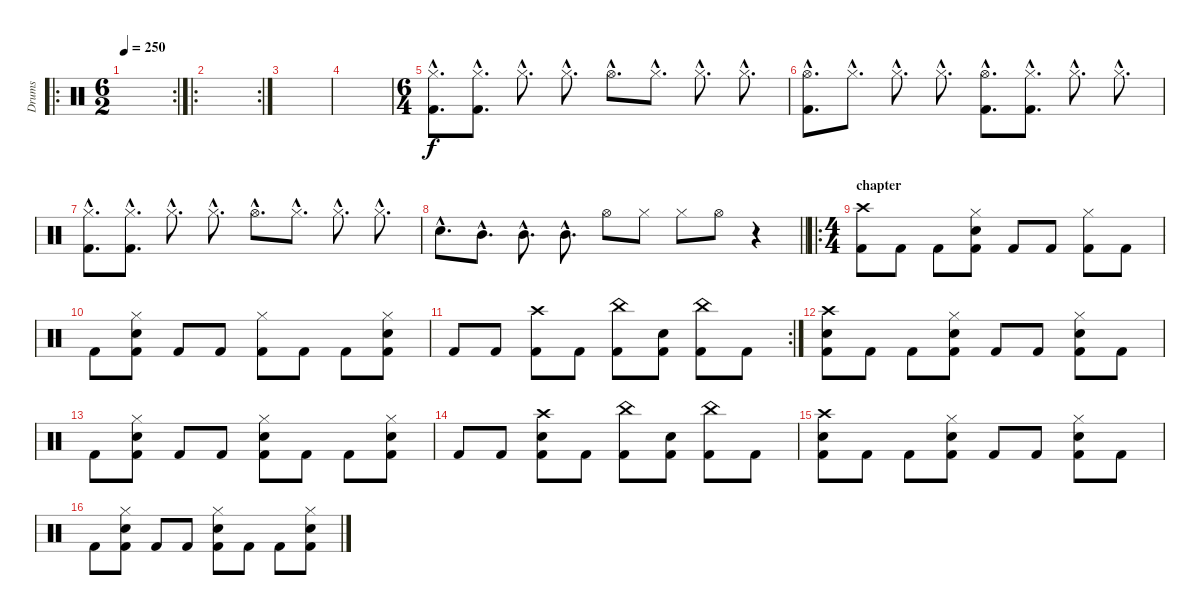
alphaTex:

\track ("Drums" "Drums") {instrument percussion}
\staff {score}
\articulation defaults
\ro
\rc 2
\ts (6 2)
\tempo 250
\clef neutral
\ks c
|
\ro
\rc 2
|
|
|
\ts (6 4)
("Hi-Hat (closed)"{hac} "Kick (hit) 2"{hac}).8{d} ("Hi-Hat (closed)"{hac} "Kick (hit) 2"{hac}).8{d} "Hi-Hat (closed)"{hac}.8{d} "Hi-Hat (closed)"{hac}.8{d} "Hi-Hat (open)"{hac}.8{d} "Hi-Hat (closed)"{hac}.8{d} "Hi-Hat (closed)"{hac}.8{d} "Hi-Hat (closed)"{hac}.8{d} |
("Hi-Hat (open)"{hac} "Kick (hit) 2"{hac}).8{d} "Hi-Hat (closed)"{hac}.8{d} "Hi-Hat (closed)"{hac}.8{d} "Hi-Hat (closed)"{hac}.8{d} ("Hi-Hat (open)"{hac} "Kick (hit) 2"{hac}).8{d} ("Hi-Hat (closed)"{hac} "Kick (hit) 2"{hac}).8{d} "Hi-Hat (closed)"{hac}.8{d} "Hi-Hat (closed)"{hac}.8{d} |
("Hi-Hat (closed)"{hac} "Kick (hit) 2"{hac}).8{d} ("Hi-Hat (closed)"{hac} "Kick (hit) 2"{hac}).8{d} "Hi-Hat (closed)"{hac}.8{d} "Hi-Hat (closed)"{hac}.8{d} "Hi-Hat (open)"{hac}.8{d} "Hi-Hat (closed)"{hac}.8{d} "Hi-Hat (closed)"{hac}.8{d} "Hi-Hat (closed)"{hac}.8{d} |
\barLineRight lightlight "Snare (hit) 2"{hac}.8{d} "Mid Tom (hit)"{hac}.8{d} "Mid Tom (hit)"{hac}.8{d} "Mid Tom (hit)"{hac}.8{d} "Hi-Hat (open)".8 "Hi-Hat (closed)".8 "Hi-Hat (closed)".8 "Hi-Hat (open)".8
r.4 |
\ro
\ts (4 4)
\section ("" "chapter ")
("Crash high (hit)" "Kick (hit) 2").8 "Kick (hit) 2".8 "Kick (hit) 2".8 ("Hi-Hat (closed)" "Snare (hit) 2" "Kick (hit) 2").8 "Kick (hit) 2".8 "Kick (hit) 2".8 ("Hi-Hat (closed)" "Kick (hit) 2").8 "Kick (hit) 2".8 |
"Kick (hit) 2".8 ("Hi-Hat (closed)" "Snare (hit) 2" "Kick (hit) 2").8 "Kick (hit) 2".8 "Kick (hit) 2".8 ("Hi-Hat (closed)" "Kick (hit) 2").8 "Kick (hit) 2".8 "Kick (hit) 2".8 ("Hi-Hat (closed)" "Snare (hit) 2" "Kick (hit) 2").8 |
\rc 2 "Kick (hit) 2".8 "Kick (hit) 2".8
("Crash high (hit)" "Kick (hit) 2").8 "Kick (hit) 2".8 ("China (hit)" "Kick (hit) 2").8 ("Snare (hit) 2" "Kick (hit) 2").8 ("China (hit)" "Kick (hit) 2").8 "Kick (hit) 2".8 |
("Crash high (hit)" "Snare (hit) 2" "Kick (hit) 2").8 "Kick (hit) 2".8 "Kick (hit) 2".8 ("Hi-Hat (closed)" "Snare (hit) 2" "Kick (hit) 2").8 "Kick (hit) 2".8 "Kick (hit) 2".8 ("Hi-Hat (closed)" "Snare (hit) 2" "Kick (hit) 2").8 "Kick (hit) 2".8 |
"Kick (hit) 2".8 ("Hi-Hat (closed)" "Snare (hit) 2" "Kick (hit) 2").8 "Kick (hit) 2".8 "Kick (hit) 2".8 ("Hi-Hat (closed)" "Snare (hit) 2" "Kick (hit) 2").8 "Kick (hit) 2".8 "Kick (hit) 2".8 ("Hi-Hat (closed)" "Snare (hit) 2" "Kick (hit) 2").8 |
"Kick (hit) 2".8 "Kick (hit) 2".8 ("Crash high (hit)" "Snare (hit) 2" "Kick (hit) 2").8 "Kick (hit) 2".8 ("China (hit)" "Kick (hit) 2").8 ("Snare (hit) 2" "Kick (hit) 2").8 ("China (hit)" "Kick (hit) 2").8 "Kick (hit) 2".8 |
("Crash high (hit)" "Snare (hit) 2" "Kick (hit) 2").8 "Kick (hit) 2".8 "Kick (hit) 2".8 ("Hi-Hat (closed)" "Snare (hit) 2" "Kick (hit) 2").8 "Kick (hit) 2".8 "Kick (hit) 2".8 ("Hi-Hat (closed)" "Snare (hit) 2" "Kick (hit) 2").8 "Kick (hit) 2".8 |
"Kick (hit) 2".8 ("Hi-Hat (closed)" "Snare (hit) 2" "Kick (hit) 2").8 "Kick (hit) 2".8 "Kick (hit) 2".8 ("Hi-Hat (closed)" "Snare (hit) 2" "Kick (hit) 2").8 "Kick (hit) 2".8 "Kick (hit) 2".8 ("Hi-Hat (closed)" "Snare (hit) 2" "Kick (hit) 2").8
